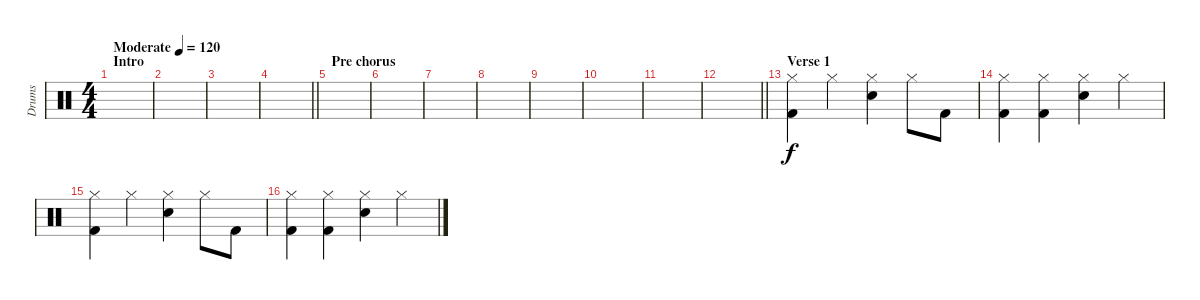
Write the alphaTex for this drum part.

\track ("Drums" "Drums") {instrument percussion}
\staff {score}
\articulation defaults
\ts (4 4)
\section ("" "Intro")
\tempo (120 "Moderate")
\clef neutral
\ks c
|
|
|
\barLineRight lightlight
|
\section ("" "Pre chorus")
|
|
|
|
|
|
|
\barLineRight lightlight
|
\section ("" "Verse 1 ")
("Hi-Hat (closed)" "Kick (hit) 2").4 "Hi-Hat (closed)".4 ("Hi-Hat (closed)" "Electric Snare (hit)").4 "Hi-Hat (closed)".8 "Kick (hit) 2".8 |
("Hi-Hat (closed)" "Kick (hit) 2").4 ("Hi-Hat (closed)" "Kick (hit) 2").4 ("Hi-Hat (closed)" "Electric Snare (hit)").4 "Hi-Hat (closed)".4 |
("Hi-Hat (closed)" "Kick (hit) 2").4 "Hi-Hat (closed)".4 ("Hi-Hat (closed)" "Electric Snare (hit)").4 "Hi-Hat (closed)".8 "Kick (hit) 2".8 |
("Hi-Hat (closed)" "Kick (hit) 2").4 ("Hi-Hat (closed)" "Kick (hit) 2").4 ("Hi-Hat (closed)" "Electric Snare (hit)").4 "Hi-Hat (closed)".4
